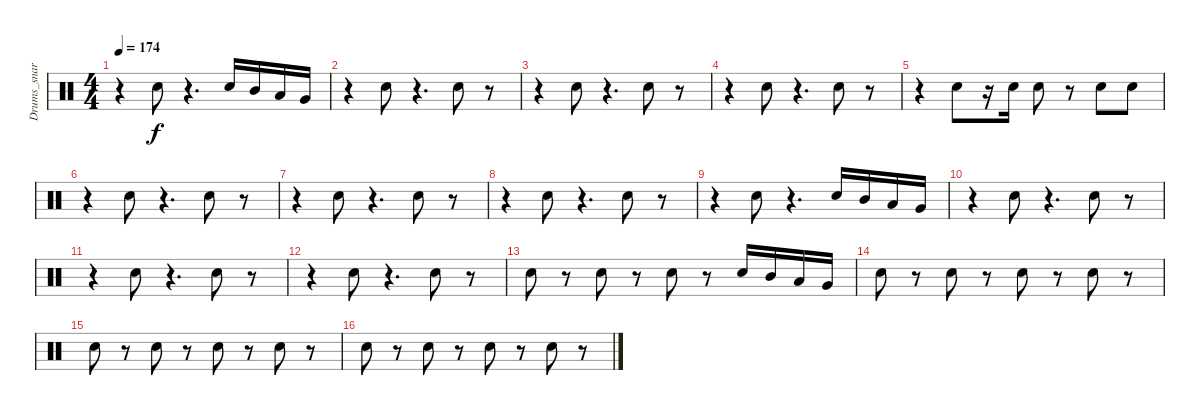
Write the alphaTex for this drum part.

\track ("Drums_snare&tom" "Drums_snar") {instrument percussion}
\staff {score}
\articulation defaults
\ts (4 4)
\tempo 174
\clef neutral
\ks c
r.4{dy f} "Electric Snare (hit)".8 r.4{d} "Electric Snare (hit)".16 "Mid Tom (hit)".16 "Low Tom (hit)".16 "Very Low Tom (hit)".16 |
r.4 "Electric Snare (hit)".8 r.4{d} "Electric Snare (hit)".8 r.8 |
r.4 "Electric Snare (hit)".8 r.4{d} "Electric Snare (hit)".8 r.8 |
r.4 "Electric Snare (hit)".8 r.4{d} "Electric Snare (hit)".8 r.8 |
r.4 "Electric Snare (hit)".8 r.16 "Electric Snare (hit)".16 "Electric Snare (hit)".8 r.8 "Electric Snare (hit)".8 "Electric Snare (hit)".8 |
r.4 "Electric Snare (hit)".8 r.4{d} "Electric Snare (hit)".8 r.8 |
r.4 "Electric Snare (hit)".8 r.4{d} "Electric Snare (hit)".8 r.8 |
r.4 "Electric Snare (hit)".8 r.4{d} "Electric Snare (hit)".8 r.8 |
r.4 "Electric Snare (hit)".8 r.4{d} "Electric Snare (hit)".16 "Mid Tom (hit)".16 "Low Tom (hit)".16 "Very Low Tom (hit)".16 |
r.4 "Electric Snare (hit)".8 r.4{d} "Electric Snare (hit)".8 r.8 |
r.4 "Electric Snare (hit)".8 r.4{d} "Electric Snare (hit)".8 r.8 |
r.4 "Electric Snare (hit)".8 r.4{d} "Electric Snare (hit)".8 r.8 |
"Electric Snare (hit)".8 r.8 "Electric Snare (hit)".8 r.8 "Electric Snare (hit)".8 r.8 "Electric Snare (hit)".16 "Mid Tom (hit)".16 "Low Tom (hit)".16 "Very Low Tom (hit)".16 |
"Electric Snare (hit)".8 r.8 "Electric Snare (hit)".8 r.8 "Electric Snare (hit)".8 r.8 "Electric Snare (hit)".8 r.8 |
"Electric Snare (hit)".8 r.8 "Electric Snare (hit)".8 r.8 "Electric Snare (hit)".8 r.8 "Electric Snare (hit)".8 r.8 |
"Electric Snare (hit)".8 r.8 "Electric Snare (hit)".8 r.8 "Electric Snare (hit)".8 r.8 "Electric Snare (hit)".8 r.8
